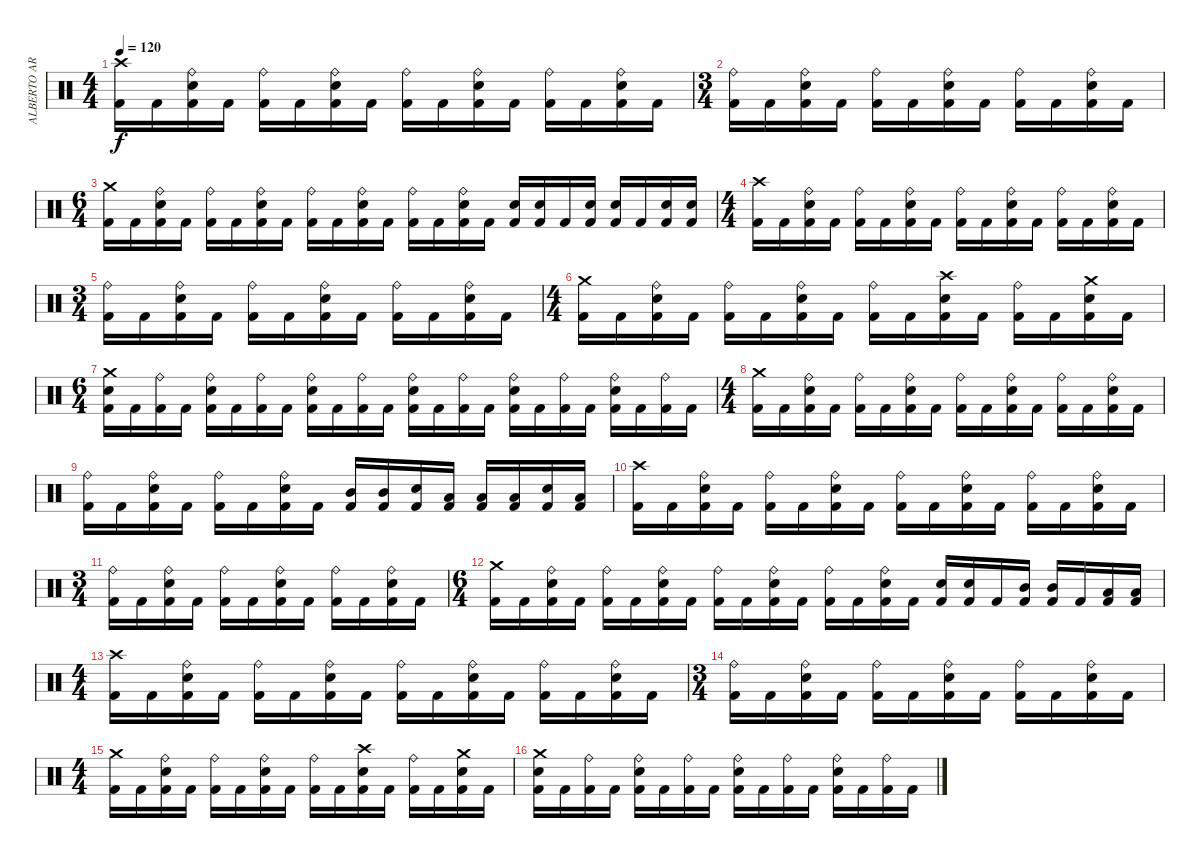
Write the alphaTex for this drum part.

\track ("ALBERTO ARDINES" "ALBERTO AR") {instrument percussion}
\staff {score}
\articulation defaults
\ts (4 4)
\tempo 120
\clef neutral
\ks c
("Crash high (hit)" "Kick (hit) 2").16{dy f} "Kick (hit) 2".16 ("Ride (bell)" "Electric Snare (hit)" "Kick (hit) 2").16 "Kick (hit) 2".16 ("Ride (bell)" "Kick (hit) 2").16 "Kick (hit) 2".16 ("Ride (bell)" "Electric Snare (hit)" "Kick (hit) 2").16 "Kick (hit) 2".16 ("Ride (bell)" "Kick (hit) 2").16 "Kick (hit) 2".16 ("Ride (bell)" "Electric Snare (hit)" "Kick (hit) 2").16 "Kick (hit) 2".16 ("Ride (bell)" "Kick (hit) 2").16 "Kick (hit) 2".16 ("Ride (bell)" "Electric Snare (hit)" "Kick (hit) 2").16 "Kick (hit) 2".16 |
\ts (3 4)
("Ride (bell)" "Kick (hit) 2").16 "Kick (hit) 2".16 ("Ride (bell)" "Electric Snare (hit)" "Kick (hit) 2").16 "Kick (hit) 2".16 ("Ride (bell)" "Kick (hit) 2").16 "Kick (hit) 2".16 ("Ride (bell)" "Electric Snare (hit)" "Kick (hit) 2").16 "Kick (hit) 2".16 ("Ride (bell)" "Kick (hit) 2").16 "Kick (hit) 2".16 ("Ride (bell)" "Electric Snare (hit)" "Kick (hit) 2").16 "Kick (hit) 2".16 |
\ts (6 4)
("Crash medium (hit)" "Kick (hit) 2").16 "Kick (hit) 2".16 ("Ride (bell)" "Electric Snare (hit)" "Kick (hit) 2").16 "Kick (hit) 2".16 ("Ride (bell)" "Kick (hit) 2").16 "Kick (hit) 2".16 ("Ride (bell)" "Electric Snare (hit)" "Kick (hit) 2").16 "Kick (hit) 2".16 ("Ride (bell)" "Kick (hit) 2").16 "Kick (hit) 2".16 ("Ride (bell)" "Electric Snare (hit)" "Kick (hit) 2").16 "Kick (hit) 2".16 ("Ride (bell)" "Kick (hit) 2").16 "Kick (hit) 2".16 ("Ride (bell)" "Electric Snare (hit)" "Kick (hit) 2").16 "Kick (hit) 2".16 ("Electric Snare (hit)" "Kick (hit) 2").16 ("Electric Snare (hit)" "Kick (hit) 2").16 "Kick (hit) 2".16 ("Electric Snare (hit)" "Kick (hit) 2").16 ("Electric Snare (hit)" "Kick (hit) 2").16 "Kick (hit) 2".16 ("Electric Snare (hit)" "Kick (hit) 2").16 ("Electric Snare (hit)" "Kick (hit) 2").16 |
\ts (4 4)
("Crash high (hit)" "Kick (hit) 2").16 "Kick (hit) 2".16 ("Ride (bell)" "Electric Snare (hit)" "Kick (hit) 2").16 "Kick (hit) 2".16 ("Ride (bell)" "Kick (hit) 2").16 "Kick (hit) 2".16 ("Ride (bell)" "Electric Snare (hit)" "Kick (hit) 2").16 "Kick (hit) 2".16 ("Ride (bell)" "Kick (hit) 2").16 "Kick (hit) 2".16 ("Ride (bell)" "Electric Snare (hit)" "Kick (hit) 2").16 "Kick (hit) 2".16 ("Ride (bell)" "Kick (hit) 2").16 "Kick (hit) 2".16 ("Ride (bell)" "Electric Snare (hit)" "Kick (hit) 2").16 "Kick (hit) 2".16 |
\ts (3 4)
("Ride (bell)" "Kick (hit) 2").16 "Kick (hit) 2".16 ("Ride (bell)" "Electric Snare (hit)" "Kick (hit) 2").16 "Kick (hit) 2".16 ("Ride (bell)" "Kick (hit) 2").16 "Kick (hit) 2".16 ("Ride (bell)" "Electric Snare (hit)" "Kick (hit) 2").16 "Kick (hit) 2".16 ("Ride (bell)" "Kick (hit) 2").16 "Kick (hit) 2".16 ("Ride (bell)" "Electric Snare (hit)" "Kick (hit) 2").16 "Kick (hit) 2".16 |
\ts (4 4)
("Crash medium (hit)" "Kick (hit) 2").16 "Kick (hit) 2".16 ("Ride (bell)" "Electric Snare (hit)" "Kick (hit) 2").16 "Kick (hit) 2".16 ("Ride (bell)" "Kick (hit) 2").16 "Kick (hit) 2".16 ("Ride (bell)" "Electric Snare (hit)" "Kick (hit) 2").16 "Kick (hit) 2".16 ("Ride (bell)" "Kick (hit) 2").16 "Kick (hit) 2".16 ("Crash high (hit)" "Electric Snare (hit)" "Kick (hit) 2").16 "Kick (hit) 2".16 ("Ride (bell)" "Kick (hit) 2").16 "Kick (hit) 2".16 ("Crash medium (hit)" "Electric Snare (hit)" "Kick (hit) 2").16 "Kick (hit) 2".16 |
\ts (6 4)
("Crash medium (hit)" "Electric Snare (hit)" "Kick (hit) 2").16 "Kick (hit) 2".16 ("Ride (bell)" "Kick (hit) 2").16 "Kick (hit) 2".16 ("Ride (bell)" "Electric Snare (hit)" "Kick (hit) 2").16 "Kick (hit) 2".16 ("Ride (bell)" "Kick (hit) 2").16 "Kick (hit) 2".16 ("Ride (bell)" "Electric Snare (hit)" "Kick (hit) 2").16 "Kick (hit) 2".16 ("Ride (bell)" "Kick (hit) 2").16 "Kick (hit) 2".16 ("Ride (bell)" "Electric Snare (hit)" "Kick (hit) 2").16 "Kick (hit) 2".16 ("Ride (bell)" "Kick (hit) 2").16 "Kick (hit) 2".16 ("Ride (bell)" "Electric Snare (hit)" "Kick (hit) 2").16 "Kick (hit) 2".16 ("Ride (bell)" "Kick (hit) 2").16 "Kick (hit) 2".16 ("Ride (bell)" "Electric Snare (hit)" "Kick (hit) 2").16 "Kick (hit) 2".16 ("Ride (bell)" "Kick (hit) 2").16 "Kick (hit) 2".16 |
\ts (4 4)
("Crash medium (hit)" "Kick (hit) 2").16 "Kick (hit) 2".16 ("Ride (bell)" "Electric Snare (hit)" "Kick (hit) 2").16 "Kick (hit) 2".16 ("Ride (bell)" "Kick (hit) 2").16 "Kick (hit) 2".16 ("Ride (bell)" "Electric Snare (hit)" "Kick (hit) 2").16 "Kick (hit) 2".16 ("Ride (bell)" "Kick (hit) 2").16 "Kick (hit) 2".16 ("Ride (bell)" "Electric Snare (hit)" "Kick (hit) 2").16 "Kick (hit) 2".16 ("Ride (bell)" "Kick (hit) 2").16 "Kick (hit) 2".16 ("Ride (bell)" "Electric Snare (hit)" "Kick (hit) 2").16 "Kick (hit) 2".16 |
("Ride (bell)" "Kick (hit) 2").16 "Kick (hit) 2".16 ("Ride (bell)" "Electric Snare (hit)" "Kick (hit) 2").16 "Kick (hit) 2".16 ("Ride (bell)" "Kick (hit) 2").16 "Kick (hit) 2".16 ("Ride (bell)" "Electric Snare (hit)" "Kick (hit) 2").16 "Kick (hit) 2".16 ("Mid Tom (hit)" "Kick (hit) 2").16 ("Mid Tom (hit)" "Kick (hit) 2").16 ("Electric Snare (hit)" "Kick (hit) 2").16 ("Low Tom (hit)" "Kick (hit) 2").16 ("Low Tom (hit)" "Kick (hit) 2").16 ("Low Floor Tom (hit)" "Kick (hit) 2").16 ("Electric Snare (hit)" "Kick (hit) 2").16 ("Low Floor Tom (hit)" "Kick (hit) 2").16 |
("Crash high (hit)" "Kick (hit) 2").16 "Kick (hit) 2".16 ("Ride (bell)" "Electric Snare (hit)" "Kick (hit) 2").16 "Kick (hit) 2".16 ("Ride (bell)" "Kick (hit) 2").16 "Kick (hit) 2".16 ("Ride (bell)" "Electric Snare (hit)" "Kick (hit) 2").16 "Kick (hit) 2".16 ("Ride (bell)" "Kick (hit) 2").16 "Kick (hit) 2".16 ("Ride (bell)" "Electric Snare (hit)" "Kick (hit) 2").16 "Kick (hit) 2".16 ("Ride (bell)" "Kick (hit) 2").16 "Kick (hit) 2".16 ("Ride (bell)" "Electric Snare (hit)" "Kick (hit) 2").16 "Kick (hit) 2".16 |
\ts (3 4)
("Ride (bell)" "Kick (hit) 2").16 "Kick (hit) 2".16 ("Ride (bell)" "Electric Snare (hit)" "Kick (hit) 2").16 "Kick (hit) 2".16 ("Ride (bell)" "Kick (hit) 2").16 "Kick (hit) 2".16 ("Ride (bell)" "Electric Snare (hit)" "Kick (hit) 2").16 "Kick (hit) 2".16 ("Ride (bell)" "Kick (hit) 2").16 "Kick (hit) 2".16 ("Ride (bell)" "Electric Snare (hit)" "Kick (hit) 2").16 "Kick (hit) 2".16 |
\ts (6 4)
("Crash medium (hit)" "Kick (hit) 2").16 "Kick (hit) 2".16 ("Ride (bell)" "Electric Snare (hit)" "Kick (hit) 2").16 "Kick (hit) 2".16 ("Ride (bell)" "Kick (hit) 2").16 "Kick (hit) 2".16 ("Ride (bell)" "Electric Snare (hit)" "Kick (hit) 2").16 "Kick (hit) 2".16 ("Ride (bell)" "Kick (hit) 2").16 "Kick (hit) 2".16 ("Ride (bell)" "Electric Snare (hit)" "Kick (hit) 2").16 "Kick (hit) 2".16 ("Ride (bell)" "Kick (hit) 2").16 "Kick (hit) 2".16 ("Ride (bell)" "Electric Snare (hit)" "Kick (hit) 2").16 "Kick (hit) 2".16 ("Electric Snare (hit)" "Kick (hit) 2").16 ("Electric Snare (hit)" "Kick (hit) 2").16 "Kick (hit) 2".16 ("Mid Tom (hit)" "Kick (hit) 2").16 ("Mid Tom (hit)" "Kick (hit) 2").16 "Kick (hit) 2".16 ("Low Tom (hit)" "Kick (hit) 2").16 ("Low Tom (hit)" "Kick (hit) 2").16 |
\ts (4 4)
("Crash high (hit)" "Kick (hit) 2").16 "Kick (hit) 2".16 ("Ride (bell)" "Electric Snare (hit)" "Kick (hit) 2").16 "Kick (hit) 2".16 ("Ride (bell)" "Kick (hit) 2").16 "Kick (hit) 2".16 ("Ride (bell)" "Electric Snare (hit)" "Kick (hit) 2").16 "Kick (hit) 2".16 ("Ride (bell)" "Kick (hit) 2").16 "Kick (hit) 2".16 ("Ride (bell)" "Electric Snare (hit)" "Kick (hit) 2").16 "Kick (hit) 2".16 ("Ride (bell)" "Kick (hit) 2").16 "Kick (hit) 2".16 ("Ride (bell)" "Electric Snare (hit)" "Kick (hit) 2").16 "Kick (hit) 2".16 |
\ts (3 4)
("Ride (bell)" "Kick (hit) 2").16 "Kick (hit) 2".16 ("Ride (bell)" "Electric Snare (hit)" "Kick (hit) 2").16 "Kick (hit) 2".16 ("Ride (bell)" "Kick (hit) 2").16 "Kick (hit) 2".16 ("Ride (bell)" "Electric Snare (hit)" "Kick (hit) 2").16 "Kick (hit) 2".16 ("Ride (bell)" "Kick (hit) 2").16 "Kick (hit) 2".16 ("Ride (bell)" "Electric Snare (hit)" "Kick (hit) 2").16 "Kick (hit) 2".16 |
\ts (4 4)
("Crash medium (hit)" "Kick (hit) 2").16 "Kick (hit) 2".16 ("Ride (bell)" "Electric Snare (hit)" "Kick (hit) 2").16 "Kick (hit) 2".16 ("Ride (bell)" "Kick (hit) 2").16 "Kick (hit) 2".16 ("Ride (bell)" "Electric Snare (hit)" "Kick (hit) 2").16 "Kick (hit) 2".16 ("Ride (bell)" "Kick (hit) 2").16 "Kick (hit) 2".16 ("Crash high (hit)" "Electric Snare (hit)" "Kick (hit) 2").16 "Kick (hit) 2".16 ("Ride (bell)" "Kick (hit) 2").16 "Kick (hit) 2".16 ("Crash medium (hit)" "Electric Snare (hit)" "Kick (hit) 2").16 "Kick (hit) 2".16 |
("Crash medium (hit)" "Electric Snare (hit)" "Kick (hit) 2").16 "Kick (hit) 2".16 ("Ride (bell)" "Kick (hit) 2").16 "Kick (hit) 2".16 ("Ride (bell)" "Electric Snare (hit)" "Kick (hit) 2").16 "Kick (hit) 2".16 ("Ride (bell)" "Kick (hit) 2").16 "Kick (hit) 2".16 ("Ride (bell)" "Electric Snare (hit)" "Kick (hit) 2").16 "Kick (hit) 2".16 ("Ride (bell)" "Kick (hit) 2").16 "Kick (hit) 2".16 ("Ride (bell)" "Electric Snare (hit)" "Kick (hit) 2").16 "Kick (hit) 2".16 ("Ride (bell)" "Kick (hit) 2").16 "Kick (hit) 2".16
